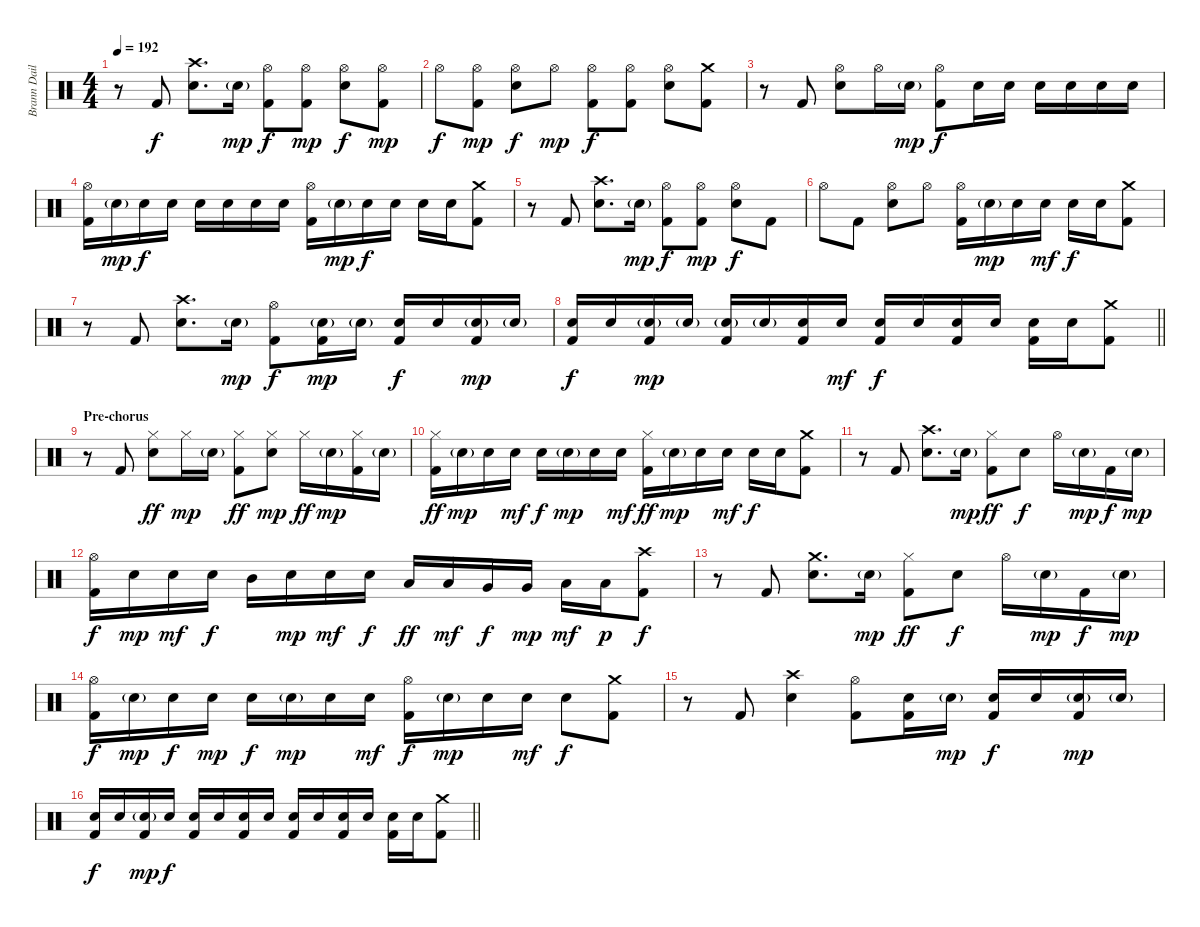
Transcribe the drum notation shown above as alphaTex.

\track ("Brann Dailor - Drums" "Brann Dail") {instrument percussion}
\staff {score}
\articulation defaults
\ts (4 4)
\tempo 192
\clef neutral
\ks c
r.8{dy f} "Kick (hit) 2".8 ("Crash high (hit)" "Electric Snare (hit)").8{d} "Electric Snare (hit)"{g}.16{dy mp} ("Hi-Hat (open)" "Kick (hit) 2").8{dy f} ("Hi-Hat (open)" "Kick (hit) 2").8{dy mp} ("Hi-Hat (open)" "Electric Snare (hit)").8{dy f} ("Hi-Hat (open)" "Kick (hit) 2").8{dy mp} |
"Hi-Hat (open)".8{dy f} ("Hi-Hat (open)" "Kick (hit) 2").8{dy mp} ("Hi-Hat (open)" "Electric Snare (hit)").8{dy f} "Hi-Hat (open)".8{dy mp} ("Hi-Hat (open)" "Kick (hit) 2").8{dy f} ("Hi-Hat (open)" "Kick (hit) 2").8 ("Hi-Hat (open)" "Electric Snare (hit)").8 ("Crash medium (hit)" "Kick (hit) 2").8 |
r.8 "Kick (hit) 2".8 ("Hi-Hat (open)" "Electric Snare (hit)").8 "Hi-Hat (open)".16 "Electric Snare (hit)"{g}.16{dy mp} ("Hi-Hat (open)" "Kick (hit) 2").8{dy f} "Electric Snare (hit)".16 "Electric Snare (hit)".16 "Electric Snare (hit)".16 "Electric Snare (hit)".16 "Electric Snare (hit)".16 "Electric Snare (hit)".16 |
("Hi-Hat (open)" "Kick (hit) 2").16 "Electric Snare (hit)"{g}.16{dy mp} "Electric Snare (hit)".16{dy f} "Electric Snare (hit)".16 "Electric Snare (hit)".16 "Electric Snare (hit)".16 "Electric Snare (hit)".16 "Electric Snare (hit)".16 ("Hi-Hat (open)" "Kick (hit) 2").16 "Electric Snare (hit)"{g}.16{dy mp} "Electric Snare (hit)".16{dy f} "Electric Snare (hit)".16 "Electric Snare (hit)".16 "Electric Snare (hit)".16 ("Crash medium (hit)" "Kick (hit) 2").8 |
r.8 "Kick (hit) 2".8 ("Crash high (hit)" "Electric Snare (hit)").8{d} "Electric Snare (hit)"{g}.16{dy mp} ("Hi-Hat (open)" "Kick (hit) 2").8{dy f} ("Hi-Hat (open)" "Kick (hit) 2").8{dy mp} ("Hi-Hat (open)" "Electric Snare (hit)").8{dy f} "Kick (hit) 2".8 |
"Hi-Hat (open)".8 "Kick (hit) 2".8 ("Hi-Hat (open)" "Electric Snare (hit)").8 "Hi-Hat (open)".8 ("Hi-Hat (open)" "Kick (hit) 2").16 "Electric Snare (hit)"{g}.16{dy mp} "Electric Snare (hit)".16 "Electric Snare (hit)".16{dy mf} "Electric Snare (hit)".16{dy f} "Electric Snare (hit)".16 ("Crash medium (hit)" "Kick (hit) 2").8 |
r.8 "Kick (hit) 2".8 ("Crash high (hit)" "Electric Snare (hit)").8{d} "Electric Snare (hit)"{g}.16{dy mp} ("Hi-Hat (open)" "Kick (hit) 2").8{dy f} ("Electric Snare (hit)"{g} "Kick (hit) 2").16{dy mp} "Electric Snare (hit)"{g}.16 ("Electric Snare (hit)" "Kick (hit) 2").16{dy f} "Electric Snare (hit)".16 ("Electric Snare (hit)"{g} "Kick (hit) 2").16{dy mp} "Electric Snare (hit)"{g}.16 |
\barLineRight lightlight
("Electric Snare (hit)" "Kick (hit) 2").16{dy f} "Electric Snare (hit)".16 ("Electric Snare (hit)"{g} "Kick (hit) 2").16{dy mp} "Electric Snare (hit)"{g}.16 ("Electric Snare (hit)"{g} "Kick (hit) 2").16 "Electric Snare (hit)"{g}.16 ("Electric Snare (hit)" "Kick (hit) 2").16 "Electric Snare (hit)".16{dy mf} ("Electric Snare (hit)" "Kick (hit) 2").16{dy f} "Electric Snare (hit)".16 ("Electric Snare (hit)" "Kick (hit) 2").16 "Electric Snare (hit)".16 ("Electric Snare (hit)" "Kick (hit) 2").16 "Electric Snare (hit)".16 ("Crash medium (hit)" "Kick (hit) 2").8 |
\section ("" "Pre-chorus")
r.8 "Kick (hit) 2".8 ("Hi-Hat (closed)" "Electric Snare (hit)").8{dy ff} "Hi-Hat (closed)".16{dy mp} "Electric Snare (hit)"{g}.16 ("Hi-Hat (closed)" "Kick (hit) 2").8{dy ff} ("Hi-Hat (closed)" "Electric Snare (hit)").8{dy mp} "Hi-Hat (closed)".16{dy ff} "Electric Snare (hit)"{g}.16{dy mp} ("Hi-Hat (closed)" "Kick (hit) 2").16 "Electric Snare (hit)"{g}.16 |
("Hi-Hat (closed)" "Kick (hit) 2").16{dy ff} "Electric Snare (hit)"{g}.16{dy mp} "Electric Snare (hit)".16 "Electric Snare (hit)".16{dy mf} "Electric Snare (hit)".16{dy f} "Electric Snare (hit)"{g}.16{dy mp} "Electric Snare (hit)".16 "Electric Snare (hit)".16{dy mf} ("Hi-Hat (closed)" "Kick (hit) 2").16{dy ff} "Electric Snare (hit)"{g}.16{dy mp} "Electric Snare (hit)".16 "Electric Snare (hit)".16{dy mf} "Electric Snare (hit)".16{dy f} "Electric Snare (hit)".16 ("Crash medium (hit)" "Kick (hit) 2").8 |
r.8 "Kick (hit) 2".8 ("Crash high (hit)" "Electric Snare (hit)").8{d} "Electric Snare (hit)"{g}.16{dy mp} ("Hi-Hat (closed)" "Kick (hit) 2").8{dy ff} "Electric Snare (hit)".8{dy f} "Hi-Hat (open)".16 "Electric Snare (hit)"{g}.16{dy mp} "Kick (hit) 2".16{dy f} "Electric Snare (hit)"{g}.16{dy mp} |
("Hi-Hat (open)" "Kick (hit) 2").16{dy f} "Electric Snare (hit)".16{dy mp} "Electric Snare (hit)".16{dy mf} "Electric Snare (hit)".16{dy f} "Mid Tom (hit)".16 "Electric Snare (hit)".16{dy mp} "Electric Snare (hit)".16{dy mf} "Electric Snare (hit)".16{dy f} "Low Tom (hit)".16{dy ff} "Low Tom (hit)".16{dy mf} "Very Low Tom (hit)".16{dy f} "Very Low Tom (hit)".16{dy mp} "Low Floor Tom (hit)".16{dy mf} "Low Floor Tom (hit)".16{dy p} ("Crash high (hit)" "Kick (hit) 2").8{dy f} |
r.8 "Kick (hit) 2".8 ("Crash medium (hit)" "Electric Snare (hit)").8{d} "Electric Snare (hit)"{g}.16{dy mp} ("Hi-Hat (closed)" "Kick (hit) 2").8{dy ff} "Electric Snare (hit)".8{dy f} "Hi-Hat (open)".16 "Electric Snare (hit)"{g}.16{dy mp} "Kick (hit) 2".16{dy f} "Electric Snare (hit)"{g}.16{dy mp} |
("Hi-Hat (open)" "Kick (hit) 2").16{dy f} "Electric Snare (hit)"{g}.16{dy mp} "Electric Snare (hit)".16{dy f} "Electric Snare (hit)".16{dy mp} "Electric Snare (hit)".16{dy f} "Electric Snare (hit)"{g}.16{dy mp} "Electric Snare (hit)".16 "Electric Snare (hit)".16{dy mf} ("Hi-Hat (open)" "Kick (hit) 2").16{dy f} "Electric Snare (hit)"{g}.16{dy mp} "Electric Snare (hit)".16 "Electric Snare (hit)".16{dy mf} "Electric Snare (hit)".8{dy f} ("Crash medium (hit)" "Kick (hit) 2").8 |
r.8 "Kick (hit) 2".8 ("Crash high (hit)" "Electric Snare (hit)").4 ("Hi-Hat (open)" "Kick (hit) 2").8 ("Electric Snare (hit)" "Kick (hit) 2").16 "Electric Snare (hit)"{g}.16{dy mp} ("Electric Snare (hit)" "Kick (hit) 2").16{dy f} "Electric Snare (hit)".16 ("Electric Snare (hit)"{g} "Kick (hit) 2").16{dy mp} "Electric Snare (hit)"{g}.16 |
\barLineRight lightlight
("Electric Snare (hit)" "Kick (hit) 2").16{dy f} "Electric Snare (hit)".16 ("Electric Snare (hit)"{g} "Kick (hit) 2").16{dy mp} "Electric Snare (hit)".16{dy f} ("Electric Snare (hit)" "Kick (hit) 2").16 "Electric Snare (hit)".16 ("Electric Snare (hit)" "Kick (hit) 2").16 "Electric Snare (hit)".16 ("Electric Snare (hit)" "Kick (hit) 2").16 "Electric Snare (hit)".16 ("Electric Snare (hit)" "Kick (hit) 2").16 "Electric Snare (hit)".16 ("Electric Snare (hit)" "Kick (hit) 2").16 "Electric Snare (hit)".16 ("Crash medium (hit)" "Kick (hit) 2").8
